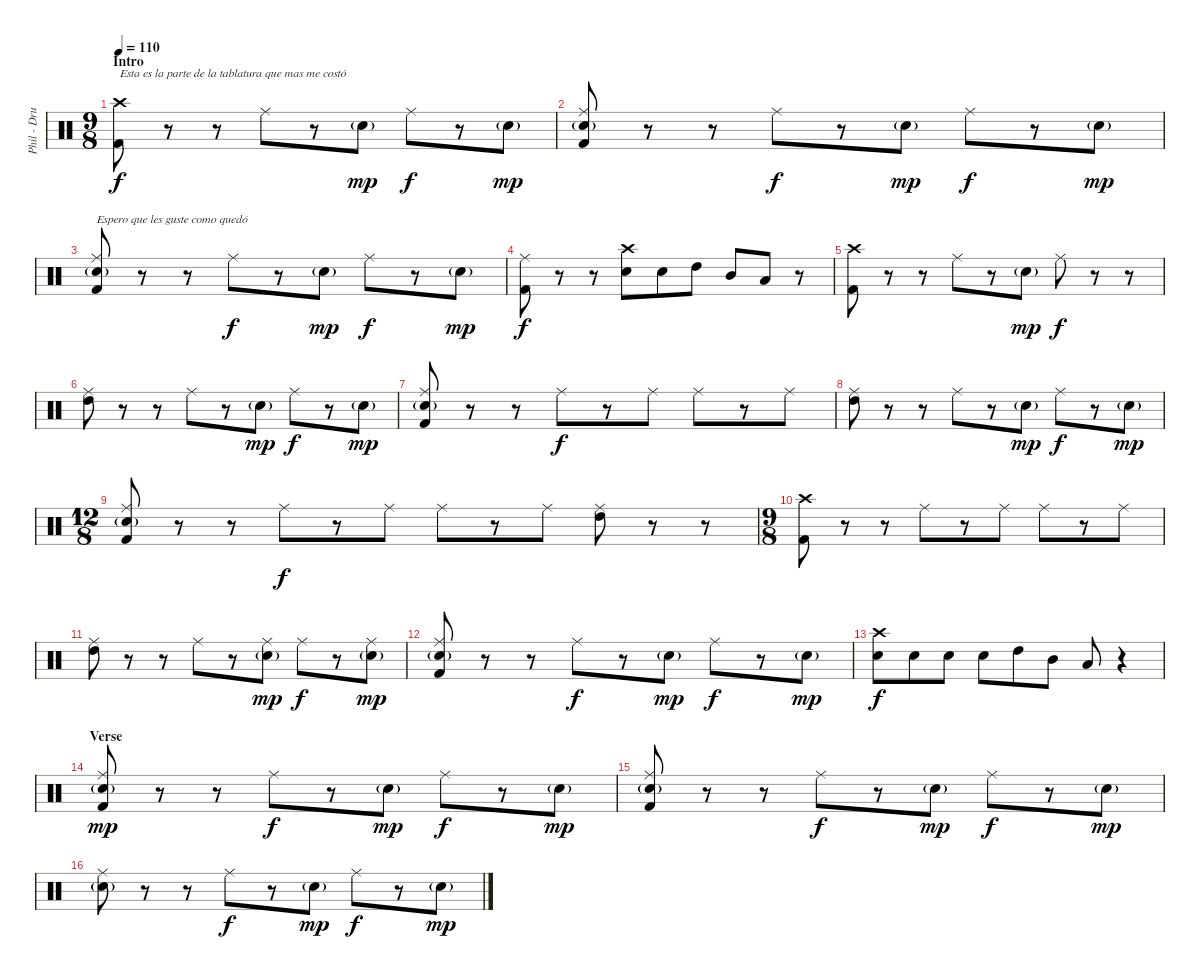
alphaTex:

\track ("Phil - Drums" "Phil - Dru") {instrument percussion}
\staff {score}
\articulation defaults
\ts (9 8)
\section ("" "Intro")
\tempo 110
\clef neutral
\ks c
("Crash high (hit)" "Kick (hit) 2").8{txt "Esta es la parte de la tablatura que mas me costó" dy f} r.8 r.8 "Ride (middle)".8 r.8 "Electric Snare (hit)"{g}.8{dy mp} "Ride (middle)".8{dy f} r.8 "Electric Snare (hit)"{g}.8{dy mp} |
("Ride (middle)" "Electric Snare (hit)"{g} "Kick (hit) 2").8 r.8 r.8 "Ride (middle)".8{dy f} r.8 "Electric Snare (hit)"{g}.8{dy mp} "Ride (middle)".8{dy f} r.8 "Electric Snare (hit)"{g}.8{dy mp} |
("Ride (middle)" "Electric Snare (hit)"{g} "Kick (hit) 2").8{txt "Espero que les guste como quedó"} r.8 r.8 "Ride (middle)".8{dy f} r.8 "Electric Snare (hit)"{g}.8{dy mp} "Ride (middle)".8{dy f} r.8 "Electric Snare (hit)"{g}.8{dy mp} |
("Ride (middle)" "Kick (hit) 2").8{dy f} r.8 r.8 ("Crash high (hit)" "Electric Snare (hit)").8 "Electric Snare (hit)".8 "High Tom (hit)".8 "Mid Tom (hit)".8 "Low Tom (hit)".8 r.8 |
("Crash high (hit)" "Kick (hit) 2").8 r.8 r.8 "Ride (middle)".8 r.8 "Electric Snare (hit)"{g}.8{dy mp} "Ride (middle)".8{dy f} r.8 r.8 |
("Ride (middle)" "High Tom (hit)").8 r.8 r.8 "Ride (middle)".8 r.8 "Electric Snare (hit)"{g}.8{dy mp} "Ride (middle)".8{dy f} r.8 "Electric Snare (hit)"{g}.8{dy mp} |
("Ride (middle)" "Electric Snare (hit)"{g} "Kick (hit) 2").8 r.8 r.8 "Ride (middle)".8{dy f} r.8 "Ride (middle)".8 "Ride (middle)".8 r.8 "Ride (middle)".8 |
("Ride (middle)" "High Tom (hit)").8 r.8 r.8 "Ride (middle)".8 r.8 "Electric Snare (hit)"{g}.8{dy mp} "Ride (middle)".8{dy f} r.8 "Electric Snare (hit)"{g}.8{dy mp} |
\ts (12 8)
("Ride (middle)" "Electric Snare (hit)"{g} "Kick (hit) 2").8 r.8 r.8 "Ride (middle)".8{dy f} r.8 "Ride (middle)".8 "Ride (middle)".8 r.8 "Ride (middle)".8 ("Ride (middle)" "High Tom (hit)").8 r.8 r.8 |
\ts (9 8)
("Crash high (hit)" "Kick (hit) 2").8 r.8 r.8 "Ride (middle)".8 r.8 "Ride (middle)".8 "Ride (middle)".8 r.8 "Ride (middle)".8 |
("Ride (middle)" "High Tom (hit)").8 r.8 r.8 "Ride (middle)".8 r.8 ("Ride (middle)" "Electric Snare (hit)"{g}).8{dy mp} "Ride (middle)".8{dy f} r.8 ("Ride (middle)" "Electric Snare (hit)"{g}).8{dy mp} |
("Ride (middle)" "Electric Snare (hit)"{g} "Kick (hit) 2").8 r.8 r.8 "Ride (middle)".8{dy f} r.8 "Electric Snare (hit)"{g}.8{dy mp} "Ride (middle)".8{dy f} r.8 "Electric Snare (hit)"{g}.8{dy mp} |
("Crash high (hit)" "Snare (hit) 2").8{dy f} "Electric Snare (hit)".8 "Electric Snare (hit)".8 "Electric Snare (hit)".8 "High Tom (hit)".8 "Mid Tom (hit)".8 "Low Tom (hit)".8 r.4 |
\section ("" "Verse")
("Ride (middle)" "Electric Snare (hit)"{g} "Kick (hit) 2").8{dy mp} r.8 r.8 "Ride (middle)".8{dy f} r.8 "Electric Snare (hit)"{g}.8{dy mp} "Ride (middle)".8{dy f} r.8 "Electric Snare (hit)"{g}.8{dy mp} |
("Ride (middle)" "Electric Snare (hit)"{g} "Kick (hit) 2").8 r.8 r.8 "Ride (middle)".8{dy f} r.8 "Electric Snare (hit)"{g}.8{dy mp} "Ride (middle)".8{dy f} r.8 "Electric Snare (hit)"{g}.8{dy mp} |
("Ride (middle)" "Electric Snare (hit)"{g}).8 r.8 r.8 "Ride (middle)".8{dy f} r.8 "Electric Snare (hit)"{g}.8{dy mp} "Ride (middle)".8{dy f} r.8 "Electric Snare (hit)"{g}.8{dy mp}
